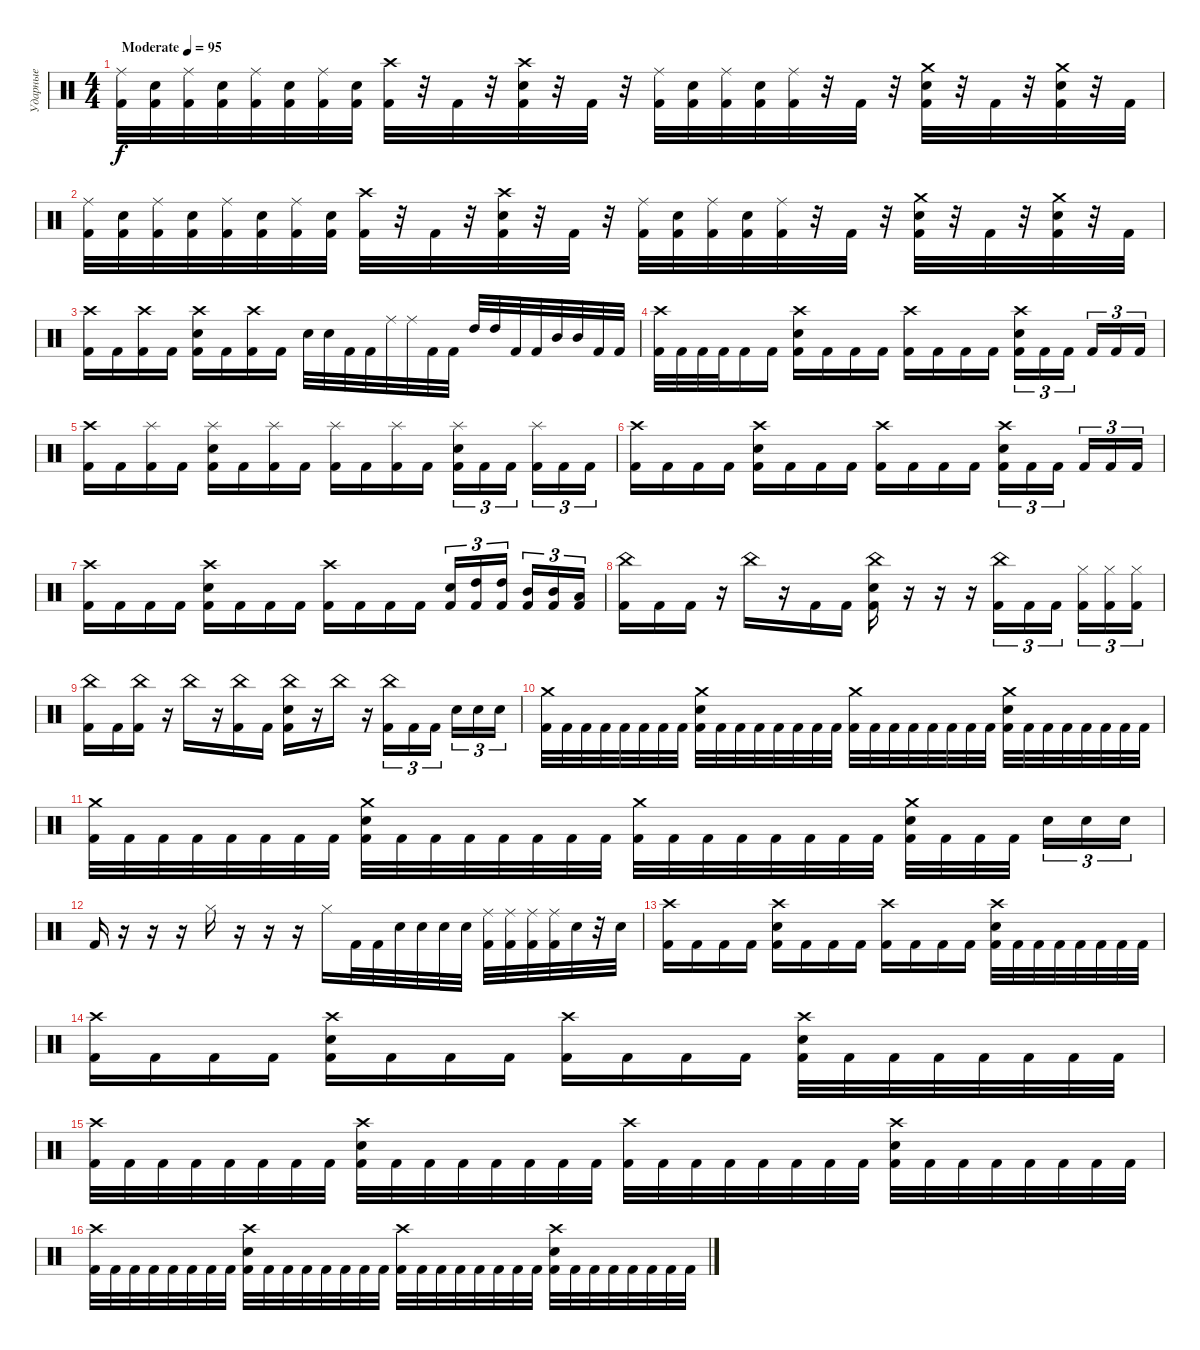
\track ("Ударные" "Ударные") {instrument percussion}
\staff {score}
\articulation defaults
\ts (4 4)
\tempo (95 "Moderate")
\clef neutral
\ks c
("Ride (middle)" "Kick (hit) 2").32{dy f} ("Kick (hit) 2" "Electric Snare (hit)").32 ("Ride (middle)" "Kick (hit) 2").32 ("Kick (hit) 2" "Electric Snare (hit)").32 ("Ride (middle)" "Kick (hit) 2").32 ("Kick (hit) 2" "Electric Snare (hit)").32 ("Ride (middle)" "Kick (hit) 2").32 ("Kick (hit) 2" "Electric Snare (hit)").32 ("Crash high (hit)" "Kick (hit) 2").32 r.32 "Kick (hit) 2".32 r.32 ("Crash high (hit)" "Kick (hit) 2" "Electric Snare (hit)").32 r.32 "Kick (hit) 2".32 r.32 ("Ride (middle)" "Kick (hit) 2").32 ("Kick (hit) 2" "Electric Snare (hit)").32 ("Ride (middle)" "Kick (hit) 2").32 ("Kick (hit) 2" "Electric Snare (hit)").32 ("Ride (middle)" "Kick (hit) 2").32 r.32 "Kick (hit) 2".32 r.32 ("Crash medium (hit)" "Kick (hit) 2" "Electric Snare (hit)").32 r.32 "Kick (hit) 2".32 r.32 ("Crash medium (hit)" "Kick (hit) 2" "Electric Snare (hit)").32 r.32 "Kick (hit) 2".32 |
("Ride (middle)" "Kick (hit) 2").32 ("Kick (hit) 2" "Electric Snare (hit)").32 ("Ride (middle)" "Kick (hit) 2").32 ("Kick (hit) 2" "Electric Snare (hit)").32 ("Ride (middle)" "Kick (hit) 2").32 ("Kick (hit) 2" "Electric Snare (hit)").32 ("Ride (middle)" "Kick (hit) 2").32 ("Kick (hit) 2" "Electric Snare (hit)").32 ("Crash high (hit)" "Kick (hit) 2").32 r.32 "Kick (hit) 2".32 r.32 ("Crash high (hit)" "Kick (hit) 2" "Electric Snare (hit)").32 r.32 "Kick (hit) 2".32 r.32 ("Ride (middle)" "Kick (hit) 2").32 ("Kick (hit) 2" "Electric Snare (hit)").32 ("Ride (middle)" "Kick (hit) 2").32 ("Kick (hit) 2" "Electric Snare (hit)").32 ("Ride (middle)" "Kick (hit) 2").32 r.32 "Kick (hit) 2".32 r.32 ("Crash medium (hit)" "Kick (hit) 2" "Electric Snare (hit)").32 r.32 "Kick (hit) 2".32 r.32 ("Crash medium (hit)" "Kick (hit) 2" "Electric Snare (hit)").32 r.32 "Kick (hit) 2".32 |
("Crash high (hit)" "Kick (hit) 2").16 "Kick (hit) 2".16 ("Crash high (hit)" "Kick (hit) 2").16 "Kick (hit) 2".16 ("Crash high (hit)" "Electric Snare (hit)" "Kick (hit) 2").16 "Kick (hit) 2".16 ("Crash high (hit)" "Kick (hit) 2").16 "Kick (hit) 2".16 "Electric Snare (hit)".32 "Electric Snare (hit)".32 "Kick (hit) 2".32 "Kick (hit) 2".32 "Ride (middle)".32 "Ride (middle)".32 "Kick (hit) 2".32 "Kick (hit) 2".32 "High Tom (hit)".32 "High Tom (hit)".32 "Kick (hit) 2".32 "Kick (hit) 2".32 "Mid Tom (hit)".32 "Mid Tom (hit)".32 "Kick (hit) 2".32 "Kick (hit) 2".32 |
("Crash high (hit)" "Kick (hit) 2").32 "Kick (hit) 2".32 "Kick (hit) 2".32 "Kick (hit) 2".32 "Kick (hit) 2".16 "Kick (hit) 2".16 ("Crash high (hit)" "Kick (hit) 2" "Electric Snare (hit)").16 "Kick (hit) 2".16 "Kick (hit) 2".16 "Kick (hit) 2".16 ("Crash high (hit)" "Kick (hit) 2").16 "Kick (hit) 2".16 "Kick (hit) 2".16 "Kick (hit) 2".16 ("Crash high (hit)" "Kick (hit) 2" "Electric Snare (hit)").16{tu (3 2)} "Kick (hit) 2".16{tu (3 2)} "Kick (hit) 2".16{tu (3 2) beam splitsecondary} "Kick (hit) 2".16{tu (3 2)} "Kick (hit) 2".16{tu (3 2)} "Kick (hit) 2".16{tu (3 2)} |
("Crash high (hit)" "Kick (hit) 2").16 "Kick (hit) 2".16 ("Splash (hit)" "Kick (hit) 2").16 "Kick (hit) 2".16 ("Splash (hit)" "Kick (hit) 2" "Electric Snare (hit)").16 "Kick (hit) 2".16 ("Splash (hit)" "Kick (hit) 2").16 "Kick (hit) 2".16 ("Splash (hit)" "Kick (hit) 2").16 "Kick (hit) 2".16 ("Splash (hit)" "Kick (hit) 2").16 "Kick (hit) 2".16 ("Splash (hit)" "Kick (hit) 2" "Electric Snare (hit)").16{tu (3 2)} "Kick (hit) 2".16{tu (3 2)} "Kick (hit) 2".16{tu (3 2) beam splitsecondary} ("Splash (hit)" "Kick (hit) 2").16{tu (3 2)} "Kick (hit) 2".16{tu (3 2)} "Kick (hit) 2".16{tu (3 2)} |
("Crash high (hit)" "Kick (hit) 2").16 "Kick (hit) 2".16 "Kick (hit) 2".16 "Kick (hit) 2".16 ("Crash high (hit)" "Kick (hit) 2" "Electric Snare (hit)").16 "Kick (hit) 2".16 "Kick (hit) 2".16 "Kick (hit) 2".16 ("Crash high (hit)" "Kick (hit) 2").16 "Kick (hit) 2".16 "Kick (hit) 2".16 "Kick (hit) 2".16 ("Crash high (hit)" "Kick (hit) 2" "Electric Snare (hit)").16{tu (3 2)} "Kick (hit) 2".16{tu (3 2)} "Kick (hit) 2".16{tu (3 2) beam splitsecondary} "Kick (hit) 2".16{tu (3 2)} "Kick (hit) 2".16{tu (3 2)} "Kick (hit) 2".16{tu (3 2)} |
("Crash high (hit)" "Kick (hit) 2").16 "Kick (hit) 2".16 "Kick (hit) 2".16 "Kick (hit) 2".16 ("Crash high (hit)" "Kick (hit) 2" "Electric Snare (hit)").16 "Kick (hit) 2".16 "Kick (hit) 2".16 "Kick (hit) 2".16 ("Crash high (hit)" "Kick (hit) 2").16 "Kick (hit) 2".16 "Kick (hit) 2".16 "Kick (hit) 2".16 ("Kick (hit) 2" "Electric Snare (hit)").16{tu (3 2)} ("High Tom (hit)" "Kick (hit) 2").16{tu (3 2)} ("High Tom (hit)" "Kick (hit) 2").16{tu (3 2) beam splitsecondary} ("Mid Tom (hit)" "Kick (hit) 2").16{tu (3 2)} ("Mid Tom (hit)" "Kick (hit) 2").16{tu (3 2)} ("Low Tom (hit)" "Kick (hit) 2").16{tu (3 2)} |
("China (hit)" "Kick (hit) 2").16 "Kick (hit) 2".16 "Kick (hit) 2".16 r.16 "China (hit)".16 r.16 "Kick (hit) 2".16 "Kick (hit) 2".16 ("China (hit)" "Kick (hit) 2" "Electric Snare (hit)").16 r.16 r.16 r.16 ("China (hit)" "Kick (hit) 2").16{tu (3 2)} "Kick (hit) 2".16{tu (3 2)} "Kick (hit) 2".16{tu (3 2) beam splitsecondary} ("Hi-Hat (closed)" "Kick (hit) 2").16{tu (3 2)} ("Hi-Hat (closed)" "Kick (hit) 2").16{tu (3 2)} ("Hi-Hat (closed)" "Kick (hit) 2").16{tu (3 2)} |
("China (hit)" "Kick (hit) 2").16 "Kick (hit) 2".16 ("China (hit)" "Kick (hit) 2").16 r.16 "China (hit)".16 r.16 ("China (hit)" "Kick (hit) 2").16 "Kick (hit) 2".16 ("China (hit)" "Kick (hit) 2" "Electric Snare (hit)").16 r.16 "China (hit)".16 r.16 ("China (hit)" "Kick (hit) 2").16{tu (3 2)} "Kick (hit) 2".16{tu (3 2)} "Kick (hit) 2".16{tu (3 2) beam splitsecondary} "Electric Snare (hit)".16{tu (3 2)} "Electric Snare (hit)".16{tu (3 2)} "Electric Snare (hit)".16{tu (3 2)} |
("Crash medium (hit)" "Kick (hit) 2").32 "Kick (hit) 2".32 "Kick (hit) 2".32 "Kick (hit) 2".32 "Kick (hit) 2".32 "Kick (hit) 2".32 "Kick (hit) 2".32 "Kick (hit) 2".32 ("Crash medium (hit)" "Kick (hit) 2" "Electric Snare (hit)").32 "Kick (hit) 2".32 "Kick (hit) 2".32 "Kick (hit) 2".32 "Kick (hit) 2".32 "Kick (hit) 2".32 "Kick (hit) 2".32 "Kick (hit) 2".32 ("Crash medium (hit)" "Kick (hit) 2").32 "Kick (hit) 2".32 "Kick (hit) 2".32 "Kick (hit) 2".32 "Kick (hit) 2".32 "Kick (hit) 2".32 "Kick (hit) 2".32 "Kick (hit) 2".32 ("Crash medium (hit)" "Kick (hit) 2" "Electric Snare (hit)").32 "Kick (hit) 2".32 "Kick (hit) 2".32 "Kick (hit) 2".32 "Kick (hit) 2".32 "Kick (hit) 2".32 "Kick (hit) 2".32 "Kick (hit) 2".32 |
("Crash medium (hit)" "Kick (hit) 2").32 "Kick (hit) 2".32 "Kick (hit) 2".32 "Kick (hit) 2".32 "Kick (hit) 2".32 "Kick (hit) 2".32 "Kick (hit) 2".32 "Kick (hit) 2".32 ("Crash medium (hit)" "Kick (hit) 2" "Electric Snare (hit)").32 "Kick (hit) 2".32 "Kick (hit) 2".32 "Kick (hit) 2".32 "Kick (hit) 2".32 "Kick (hit) 2".32 "Kick (hit) 2".32 "Kick (hit) 2".32 ("Crash medium (hit)" "Kick (hit) 2").32 "Kick (hit) 2".32 "Kick (hit) 2".32 "Kick (hit) 2".32 "Kick (hit) 2".32 "Kick (hit) 2".32 "Kick (hit) 2".32 "Kick (hit) 2".32 ("Crash medium (hit)" "Kick (hit) 2" "Electric Snare (hit)").32 "Kick (hit) 2".32 "Kick (hit) 2".32 "Kick (hit) 2".32{beam splitsecondary} "Electric Snare (hit)".16{tu (3 2)} "Electric Snare (hit)".16{tu (3 2)} "Electric Snare (hit)".16{tu (3 2)} |
"Kick (hit) 2".16 r.16 r.16 r.16 "Hi-Hat (closed)".16 r.16 r.16 r.16 "Hi-Hat (closed)".16 "Kick (hit) 2".32 "Kick (hit) 2".32 "Electric Snare (hit)".32 "Electric Snare (hit)".32 "Electric Snare (hit)".32 "Electric Snare (hit)".32 ("Ride (middle)" "Kick (hit) 2").32 ("Ride (middle)" "Kick (hit) 2").32 ("Ride (middle)" "Kick (hit) 2").32 ("Ride (middle)" "Kick (hit) 2").32 "Electric Snare (hit)".32 r.32 "Electric Snare (hit)".32 |
("Crash high (hit)" "Kick (hit) 2").16 "Kick (hit) 2".16 "Kick (hit) 2".16 "Kick (hit) 2".16 ("Crash high (hit)" "Kick (hit) 2" "Electric Snare (hit)").16 "Kick (hit) 2".16 "Kick (hit) 2".16 "Kick (hit) 2".16 ("Crash high (hit)" "Kick (hit) 2").16 "Kick (hit) 2".16 "Kick (hit) 2".16 "Kick (hit) 2".16 ("Crash high (hit)" "Kick (hit) 2" "Electric Snare (hit)").32 "Kick (hit) 2".32 "Kick (hit) 2".32 "Kick (hit) 2".32 "Kick (hit) 2".32 "Kick (hit) 2".32 "Kick (hit) 2".32 "Kick (hit) 2".32 |
("Crash high (hit)" "Kick (hit) 2").16 "Kick (hit) 2".16 "Kick (hit) 2".16 "Kick (hit) 2".16 ("Crash high (hit)" "Kick (hit) 2" "Electric Snare (hit)").16 "Kick (hit) 2".16 "Kick (hit) 2".16 "Kick (hit) 2".16 ("Crash high (hit)" "Kick (hit) 2").16 "Kick (hit) 2".16 "Kick (hit) 2".16 "Kick (hit) 2".16 ("Crash high (hit)" "Kick (hit) 2" "Electric Snare (hit)").32 "Kick (hit) 2".32 "Kick (hit) 2".32 "Kick (hit) 2".32 "Kick (hit) 2".32 "Kick (hit) 2".32 "Kick (hit) 2".32 "Kick (hit) 2".32 |
("Crash high (hit)" "Kick (hit) 2").32 "Kick (hit) 2".32 "Kick (hit) 2".32 "Kick (hit) 2".32 "Kick (hit) 2".32 "Kick (hit) 2".32 "Kick (hit) 2".32 "Kick (hit) 2".32 ("Crash high (hit)" "Kick (hit) 2" "Electric Snare (hit)").32 "Kick (hit) 2".32 "Kick (hit) 2".32 "Kick (hit) 2".32 "Kick (hit) 2".32 "Kick (hit) 2".32 "Kick (hit) 2".32 "Kick (hit) 2".32 ("Crash high (hit)" "Kick (hit) 2").32 "Kick (hit) 2".32 "Kick (hit) 2".32 "Kick (hit) 2".32 "Kick (hit) 2".32 "Kick (hit) 2".32 "Kick (hit) 2".32 "Kick (hit) 2".32 ("Crash high (hit)" "Kick (hit) 2" "Electric Snare (hit)").32 "Kick (hit) 2".32 "Kick (hit) 2".32 "Kick (hit) 2".32 "Kick (hit) 2".32 "Kick (hit) 2".32 "Kick (hit) 2".32 "Kick (hit) 2".32 |
("Crash high (hit)" "Kick (hit) 2").32 "Kick (hit) 2".32 "Kick (hit) 2".32 "Kick (hit) 2".32 "Kick (hit) 2".32 "Kick (hit) 2".32 "Kick (hit) 2".32 "Kick (hit) 2".32 ("Crash high (hit)" "Kick (hit) 2" "Electric Snare (hit)").32 "Kick (hit) 2".32 "Kick (hit) 2".32 "Kick (hit) 2".32 "Kick (hit) 2".32 "Kick (hit) 2".32 "Kick (hit) 2".32 "Kick (hit) 2".32 ("Crash high (hit)" "Kick (hit) 2").32 "Kick (hit) 2".32 "Kick (hit) 2".32 "Kick (hit) 2".32 "Kick (hit) 2".32 "Kick (hit) 2".32 "Kick (hit) 2".32 "Kick (hit) 2".32 ("Crash high (hit)" "Kick (hit) 2" "Electric Snare (hit)").32 "Kick (hit) 2".32 "Kick (hit) 2".32 "Kick (hit) 2".32 "Kick (hit) 2".32 "Kick (hit) 2".32 "Kick (hit) 2".32 "Kick (hit) 2".32
